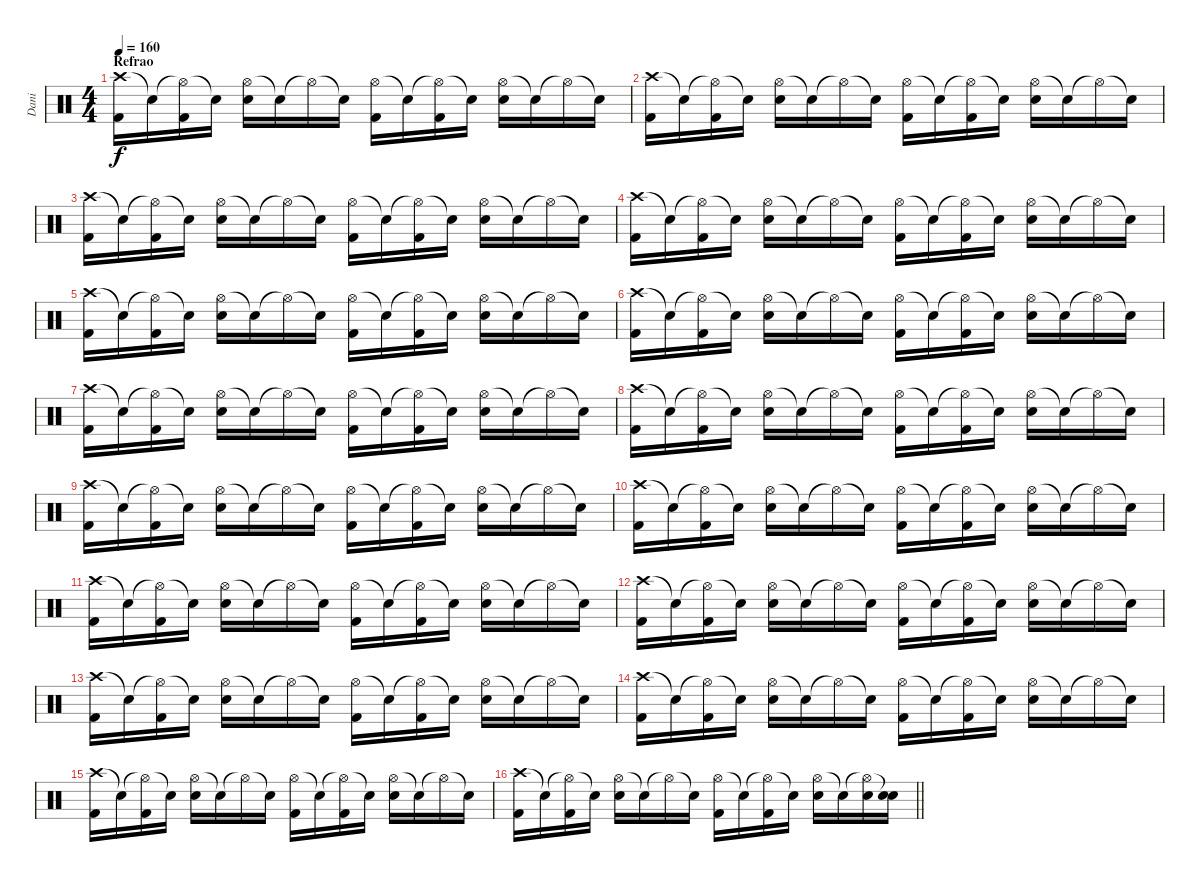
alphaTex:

\track ("Dani " "Dani ") {instrument percussion}
\staff {score}
\articulation defaults
\ts (4 4)
\section ("" "Refrao")
\tempo 160
\clef neutral
\ks c
("Crash high (hit)" "Kick (hit) 2").16{dy f} "Snare (hit)"{t}.16 ("Hi-Hat (open)"{t} "Kick (hit) 2").16 "Snare (hit)"{t}.16 ("Hi-Hat (open)" "Electric Snare (hit)").16 "Snare (hit)"{t}.16 "Hi-Hat (open)"{t}.16 "Snare (hit)"{t}.16 ("Hi-Hat (open)" "Kick (hit) 2").16 "Snare (hit)"{t}.16 ("Hi-Hat (open)"{t} "Kick (hit) 2").16 "Snare (hit)"{t}.16 ("Hi-Hat (open)" "Electric Snare (hit)").16 "Snare (hit)"{t}.16 "Hi-Hat (open)"{t}.16 "Snare (hit)"{t}.16 |
("Crash high (hit)" "Kick (hit) 2").16 "Snare (hit)"{t}.16 ("Hi-Hat (open)"{t} "Kick (hit) 2").16 "Snare (hit)"{t}.16 ("Hi-Hat (open)" "Electric Snare (hit)").16 "Snare (hit)"{t}.16 "Hi-Hat (open)"{t}.16 "Snare (hit)"{t}.16 ("Hi-Hat (open)" "Kick (hit) 2").16 "Snare (hit)"{t}.16 ("Hi-Hat (open)"{t} "Kick (hit) 2").16 "Snare (hit)"{t}.16 ("Hi-Hat (open)" "Electric Snare (hit)").16 "Snare (hit)"{t}.16 "Hi-Hat (open)"{t}.16 "Snare (hit)"{t}.16 |
("Crash high (hit)" "Kick (hit) 2").16 "Snare (hit)"{t}.16 ("Hi-Hat (open)"{t} "Kick (hit) 2").16 "Snare (hit)"{t}.16 ("Hi-Hat (open)" "Electric Snare (hit)").16 "Snare (hit)"{t}.16 "Hi-Hat (open)"{t}.16 "Snare (hit)"{t}.16 ("Hi-Hat (open)" "Kick (hit) 2").16 "Snare (hit)"{t}.16 ("Hi-Hat (open)"{t} "Kick (hit) 2").16 "Snare (hit)"{t}.16 ("Hi-Hat (open)" "Electric Snare (hit)").16 "Snare (hit)"{t}.16 "Hi-Hat (open)"{t}.16 "Snare (hit)"{t}.16 |
("Crash high (hit)" "Kick (hit) 2").16 "Snare (hit)"{t}.16 ("Hi-Hat (open)"{t} "Kick (hit) 2").16 "Snare (hit)"{t}.16 ("Hi-Hat (open)" "Electric Snare (hit)").16 "Snare (hit)"{t}.16 "Hi-Hat (open)"{t}.16 "Snare (hit)"{t}.16 ("Hi-Hat (open)" "Kick (hit) 2").16 "Snare (hit)"{t}.16 ("Hi-Hat (open)"{t} "Kick (hit) 2").16 "Snare (hit)"{t}.16 ("Hi-Hat (open)" "Electric Snare (hit)").16 "Snare (hit)"{t}.16 "Hi-Hat (open)"{t}.16 "Snare (hit)"{t}.16 |
("Crash high (hit)" "Kick (hit) 2").16 "Snare (hit)"{t}.16 ("Hi-Hat (open)"{t} "Kick (hit) 2").16 "Snare (hit)"{t}.16 ("Hi-Hat (open)" "Electric Snare (hit)").16 "Snare (hit)"{t}.16 "Hi-Hat (open)"{t}.16 "Snare (hit)"{t}.16 ("Hi-Hat (open)" "Kick (hit) 2").16 "Snare (hit)"{t}.16 ("Hi-Hat (open)"{t} "Kick (hit) 2").16 "Snare (hit)"{t}.16 ("Hi-Hat (open)" "Electric Snare (hit)").16 "Snare (hit)"{t}.16 "Hi-Hat (open)"{t}.16 "Snare (hit)"{t}.16 |
("Crash high (hit)" "Kick (hit) 2").16 "Snare (hit)"{t}.16 ("Hi-Hat (open)"{t} "Kick (hit) 2").16 "Snare (hit)"{t}.16 ("Hi-Hat (open)" "Electric Snare (hit)").16 "Snare (hit)"{t}.16 "Hi-Hat (open)"{t}.16 "Snare (hit)"{t}.16 ("Hi-Hat (open)" "Kick (hit) 2").16 "Snare (hit)"{t}.16 ("Hi-Hat (open)"{t} "Kick (hit) 2").16 "Snare (hit)"{t}.16 ("Hi-Hat (open)" "Electric Snare (hit)").16 "Snare (hit)"{t}.16 "Hi-Hat (open)"{t}.16 "Snare (hit)"{t}.16 |
("Crash high (hit)" "Kick (hit) 2").16 "Snare (hit)"{t}.16 ("Hi-Hat (open)"{t} "Kick (hit) 2").16 "Snare (hit)"{t}.16 ("Hi-Hat (open)" "Electric Snare (hit)").16 "Snare (hit)"{t}.16 "Hi-Hat (open)"{t}.16 "Snare (hit)"{t}.16 ("Hi-Hat (open)" "Kick (hit) 2").16 "Snare (hit)"{t}.16 ("Hi-Hat (open)"{t} "Kick (hit) 2").16 "Snare (hit)"{t}.16 ("Hi-Hat (open)" "Electric Snare (hit)").16 "Snare (hit)"{t}.16 "Hi-Hat (open)"{t}.16 "Snare (hit)"{t}.16 |
("Crash high (hit)" "Kick (hit) 2").16 "Snare (hit)"{t}.16 ("Hi-Hat (open)"{t} "Kick (hit) 2").16 "Snare (hit)"{t}.16 ("Hi-Hat (open)" "Electric Snare (hit)").16 "Snare (hit)"{t}.16 "Hi-Hat (open)"{t}.16 "Snare (hit)"{t}.16 ("Hi-Hat (open)" "Kick (hit) 2").16 "Snare (hit)"{t}.16 ("Hi-Hat (open)"{t} "Kick (hit) 2").16 "Snare (hit)"{t}.16 ("Hi-Hat (open)" "Electric Snare (hit)").16 "Snare (hit)"{t}.16 "Hi-Hat (open)"{t}.16 "Snare (hit)"{t}.16 |
("Crash high (hit)" "Kick (hit) 2").16 "Snare (hit)"{t}.16 ("Hi-Hat (open)"{t} "Kick (hit) 2").16 "Snare (hit)"{t}.16 ("Hi-Hat (open)" "Electric Snare (hit)").16 "Snare (hit)"{t}.16 "Hi-Hat (open)"{t}.16 "Snare (hit)"{t}.16 ("Hi-Hat (open)" "Kick (hit) 2").16 "Snare (hit)"{t}.16 ("Hi-Hat (open)"{t} "Kick (hit) 2").16 "Snare (hit)"{t}.16 ("Hi-Hat (open)" "Electric Snare (hit)").16 "Snare (hit)"{t}.16 "Hi-Hat (open)"{t}.16 "Snare (hit)"{t}.16 |
("Crash high (hit)" "Kick (hit) 2").16 "Snare (hit)"{t}.16 ("Hi-Hat (open)"{t} "Kick (hit) 2").16 "Snare (hit)"{t}.16 ("Hi-Hat (open)" "Electric Snare (hit)").16 "Snare (hit)"{t}.16 "Hi-Hat (open)"{t}.16 "Snare (hit)"{t}.16 ("Hi-Hat (open)" "Kick (hit) 2").16 "Snare (hit)"{t}.16 ("Hi-Hat (open)"{t} "Kick (hit) 2").16 "Snare (hit)"{t}.16 ("Hi-Hat (open)" "Electric Snare (hit)").16 "Snare (hit)"{t}.16 "Hi-Hat (open)"{t}.16 "Snare (hit)"{t}.16 |
("Crash high (hit)" "Kick (hit) 2").16 "Snare (hit)"{t}.16 ("Hi-Hat (open)"{t} "Kick (hit) 2").16 "Snare (hit)"{t}.16 ("Hi-Hat (open)" "Electric Snare (hit)").16 "Snare (hit)"{t}.16 "Hi-Hat (open)"{t}.16 "Snare (hit)"{t}.16 ("Hi-Hat (open)" "Kick (hit) 2").16 "Snare (hit)"{t}.16 ("Hi-Hat (open)"{t} "Kick (hit) 2").16 "Snare (hit)"{t}.16 ("Hi-Hat (open)" "Electric Snare (hit)").16 "Snare (hit)"{t}.16 "Hi-Hat (open)"{t}.16 "Snare (hit)"{t}.16 |
("Crash high (hit)" "Kick (hit) 2").16 "Snare (hit)"{t}.16 ("Hi-Hat (open)"{t} "Kick (hit) 2").16 "Snare (hit)"{t}.16 ("Hi-Hat (open)" "Electric Snare (hit)").16 "Snare (hit)"{t}.16 "Hi-Hat (open)"{t}.16 "Snare (hit)"{t}.16 ("Hi-Hat (open)" "Kick (hit) 2").16 "Snare (hit)"{t}.16 ("Hi-Hat (open)"{t} "Kick (hit) 2").16 "Snare (hit)"{t}.16 ("Hi-Hat (open)" "Electric Snare (hit)").16 "Snare (hit)"{t}.16 "Hi-Hat (open)"{t}.16 "Snare (hit)"{t}.16 |
("Crash high (hit)" "Kick (hit) 2").16 "Snare (hit)"{t}.16 ("Hi-Hat (open)"{t} "Kick (hit) 2").16 "Snare (hit)"{t}.16 ("Hi-Hat (open)" "Electric Snare (hit)").16 "Snare (hit)"{t}.16 "Hi-Hat (open)"{t}.16 "Snare (hit)"{t}.16 ("Hi-Hat (open)" "Kick (hit) 2").16 "Snare (hit)"{t}.16 ("Hi-Hat (open)"{t} "Kick (hit) 2").16 "Snare (hit)"{t}.16 ("Hi-Hat (open)" "Electric Snare (hit)").16 "Snare (hit)"{t}.16 "Hi-Hat (open)"{t}.16 "Snare (hit)"{t}.16 |
("Crash high (hit)" "Kick (hit) 2").16 "Snare (hit)"{t}.16 ("Hi-Hat (open)"{t} "Kick (hit) 2").16 "Snare (hit)"{t}.16 ("Hi-Hat (open)" "Electric Snare (hit)").16 "Snare (hit)"{t}.16 "Hi-Hat (open)"{t}.16 "Snare (hit)"{t}.16 ("Hi-Hat (open)" "Kick (hit) 2").16 "Snare (hit)"{t}.16 ("Hi-Hat (open)"{t} "Kick (hit) 2").16 "Snare (hit)"{t}.16 ("Hi-Hat (open)" "Electric Snare (hit)").16 "Snare (hit)"{t}.16 "Hi-Hat (open)"{t}.16 "Snare (hit)"{t}.16 |
("Crash high (hit)" "Kick (hit) 2").16 "Snare (hit)"{t}.16 ("Hi-Hat (open)"{t} "Kick (hit) 2").16 "Snare (hit)"{t}.16 ("Hi-Hat (open)" "Electric Snare (hit)").16 "Snare (hit)"{t}.16 "Hi-Hat (open)"{t}.16 "Snare (hit)"{t}.16 ("Hi-Hat (open)" "Kick (hit) 2").16 "Snare (hit)"{t}.16 ("Hi-Hat (open)"{t} "Kick (hit) 2").16 "Snare (hit)"{t}.16 ("Hi-Hat (open)" "Electric Snare (hit)").16 "Snare (hit)"{t}.16 "Hi-Hat (open)"{t}.16 "Snare (hit)"{t}.16 |
\barLineRight lightlight
("Crash high (hit)" "Kick (hit) 2").16 "Snare (hit)"{t}.16 ("Hi-Hat (open)"{t} "Kick (hit) 2").16 "Snare (hit)"{t}.16 ("Hi-Hat (open)" "Electric Snare (hit)").16 "Snare (hit)"{t}.16 "Hi-Hat (open)"{t}.16 "Snare (hit)"{t}.16 ("Hi-Hat (open)" "Kick (hit) 2").16 "Snare (hit)"{t}.16 ("Hi-Hat (open)"{t} "Kick (hit) 2").16 "Snare (hit)"{t}.16 ("Hi-Hat (open)" "Electric Snare (hit)").16 "Snare (hit)"{t}.16 ("Hi-Hat (open)"{t} "Electric Snare (hit)").16 ("Snare (hit)"{t} "Electric Snare (hit)").16
